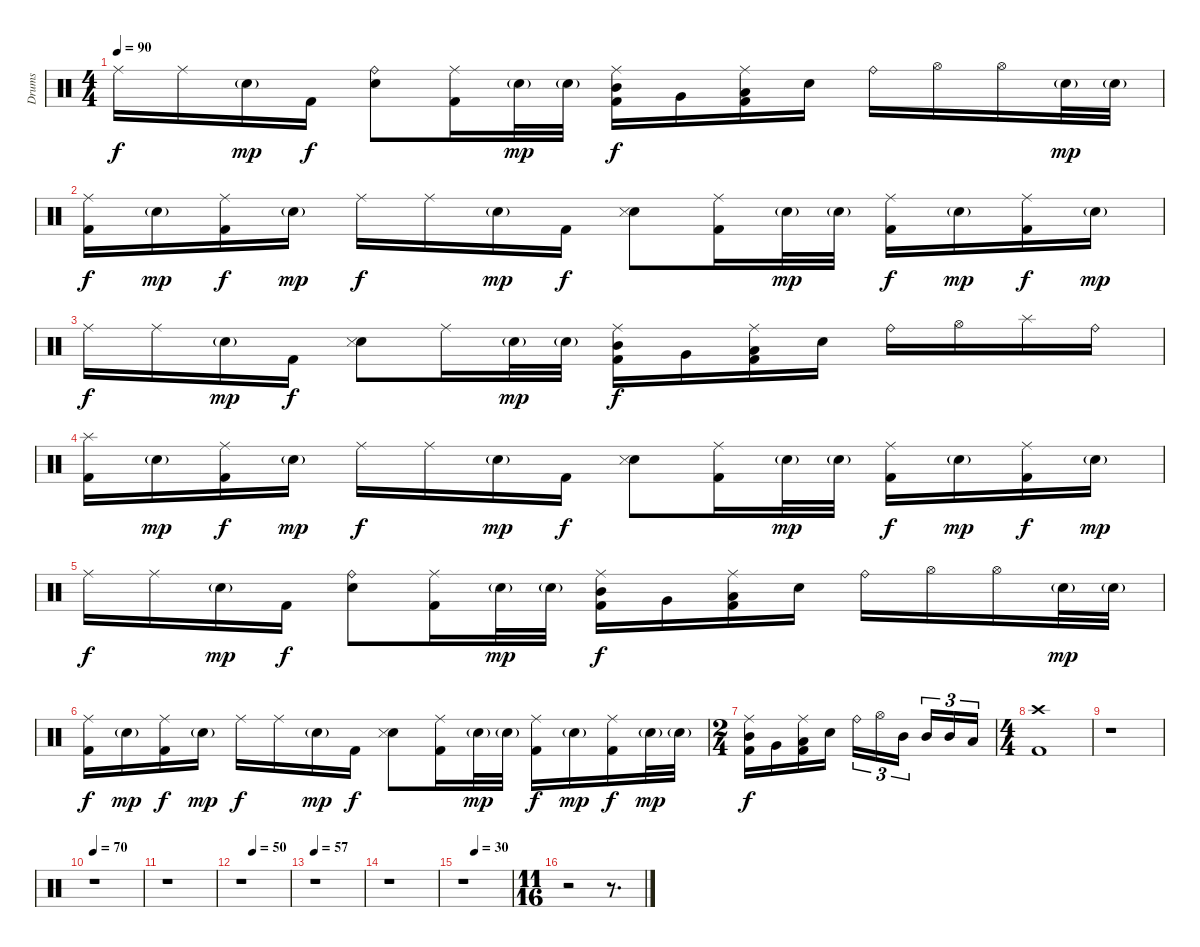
\track ("Drums" "Drums") {instrument percussion}
\staff {score}
\articulation defaults
\ts (4 4)
\tempo 90
\clef neutral
\ks c "Ride (middle)".16{dy f} "Ride (middle)".16 "Electric Snare (hit)"{g}.16{dy mp} "Kick (hit) 2".16{dy f}
("Electric Snare (hit)" "Ride (bell)").8 ("Ride (middle)" "Kick (hit) 2").16 "Electric Snare (hit)"{g}.32{dy mp} "Electric Snare (hit)"{g}.32 ("Ride (middle)" "Mid Tom (hit)" "Kick (hit) 2").16{dy f} "Very Low Tom (hit)".16 ("Low Floor Tom (hit)" "Ride (middle)" "Kick (hit) 2").16 "Electric Snare (hit)".16 "Ride (bell)".16 "Hi-Hat (open)".16 "Hi-Hat (open)".16 "Electric Snare (hit)"{g}.32{dy mp} "Electric Snare (hit)"{g}.32 |
("Ride (middle)" "Kick (hit) 2").16{dy f} "Electric Snare (hit)"{g}.16{dy mp} ("Ride (middle)" "Kick (hit) 2").16{dy f} "Electric Snare (hit)"{g}.16{dy mp} "Ride (middle)".16{dy f} "Ride (middle)".16 "Electric Snare (hit)"{g}.16{dy mp} "Kick (hit) 2".16{dy f} ("Electric Snare (hit)" "Snare (side stick) 3").8 ("Ride (middle)" "Kick (hit) 2").16 "Electric Snare (hit)"{g}.32{dy mp} "Electric Snare (hit)"{g}.32 ("Kick (hit) 2" "Ride (middle)").16{dy f} "Electric Snare (hit)"{g}.16{dy mp} ("Ride (middle)" "Kick (hit) 2").16{dy f} "Electric Snare (hit)"{g}.16{dy mp} |
"Ride (middle)".16{dy f} "Ride (middle)".16 "Electric Snare (hit)"{g}.16{dy mp} "Kick (hit) 2".16{dy f} ("Electric Snare (hit)" "Snare (side stick) 3").8 "Ride (middle)".16 "Electric Snare (hit)"{g}.32{dy mp} "Electric Snare (hit)"{g}.32 ("Ride (middle)" "Mid Tom (hit)" "Kick (hit) 2").16{dy f} "Very Low Tom (hit)".16 ("Low Floor Tom (hit)" "Ride (middle)" "Kick (hit) 2").16 "Electric Snare (hit)".16 "Ride (bell)".16 "Hi-Hat (open)".16 "Splash (hit)".16 "Ride (bell)".16 |
("Splash (hit)" "Kick (hit) 2").16 "Electric Snare (hit)"{g}.16{dy mp} ("Ride (middle)" "Kick (hit) 2").16{dy f} "Electric Snare (hit)"{g}.16{dy mp} "Ride (middle)".16{dy f} "Ride (middle)".16 "Electric Snare (hit)"{g}.16{dy mp} "Kick (hit) 2".16{dy f} ("Electric Snare (hit)" "Snare (side stick) 3").8 ("Ride (middle)" "Kick (hit) 2").16 "Electric Snare (hit)"{g}.32{dy mp} "Electric Snare (hit)"{g}.32 ("Kick (hit) 2" "Ride (middle)").16{dy f} "Electric Snare (hit)"{g}.16{dy mp} ("Ride (middle)" "Kick (hit) 2").16{dy f} "Electric Snare (hit)"{g}.16{dy mp} |
"Ride (middle)".16{dy f} "Ride (middle)".16 "Electric Snare (hit)"{g}.16{dy mp} "Kick (hit) 2".16{dy f} ("Electric Snare (hit)" "Ride (bell)").8 ("Ride (middle)" "Kick (hit) 2").16 "Electric Snare (hit)"{g}.32{dy mp} "Electric Snare (hit)"{g}.32 ("Ride (middle)" "Mid Tom (hit)" "Kick (hit) 2").16{dy f} "Very Low Tom (hit)".16 ("Low Floor Tom (hit)" "Ride (middle)" "Kick (hit) 2").16 "Electric Snare (hit)".16 "Ride (bell)".16 "Hi-Hat (open)".16 "Hi-Hat (open)".16 "Electric Snare (hit)"{g}.32{dy mp} "Electric Snare (hit)"{g}.32 |
("Ride (middle)" "Kick (hit) 2").16{dy f} "Electric Snare (hit)"{g}.16{dy mp} ("Ride (middle)" "Kick (hit) 2").16{dy f} "Electric Snare (hit)"{g}.16{dy mp} "Ride (middle)".16{dy f} "Ride (middle)".16 "Electric Snare (hit)"{g}.16{dy mp} "Kick (hit) 2".16{dy f} ("Electric Snare (hit)" "Snare (side stick) 3").8 ("Ride (middle)" "Kick (hit) 2").16 "Electric Snare (hit)"{g}.32{dy mp} "Electric Snare (hit)"{g}.32 ("Kick (hit) 2" "Ride (middle)").16{dy f} "Electric Snare (hit)"{g}.16{dy mp} ("Ride (middle)" "Kick (hit) 2").16{dy f} "Electric Snare (hit)"{g}.32{dy mp} "Electric Snare (hit)"{g}.32 |
\ts (2 4)
("Ride (middle)" "Mid Tom (hit)" "Kick (hit) 2").16{dy f} "Very Low Tom (hit)".16 ("Low Floor Tom (hit)" "Ride (middle)" "Kick (hit) 2").16 "Electric Snare (hit)".16 "Ride (bell)".16{tu (3 2)} "Hi-Hat (open)".16{tu (3 2)} "Mid Tom (hit)".16{tu (3 2) beam splitsecondary} "Mid Tom (hit)".16{tu (3 2)} "Mid Tom (hit)".16{tu (3 2)} "Low Tom (hit)".16{tu (3 2)} |
\ts (4 4)
("Crash high (hit)" "Kick (hit) 2").1 |
r.1 |
\tempo 70
r.1 |
r.1 |
\tempo (50 0.25)
r.1 |
\tempo 57
r.1 |
r.1 |
\tempo (30 0.25)
r.1 |
\ts (11 16)
r.2 r.8{d}
